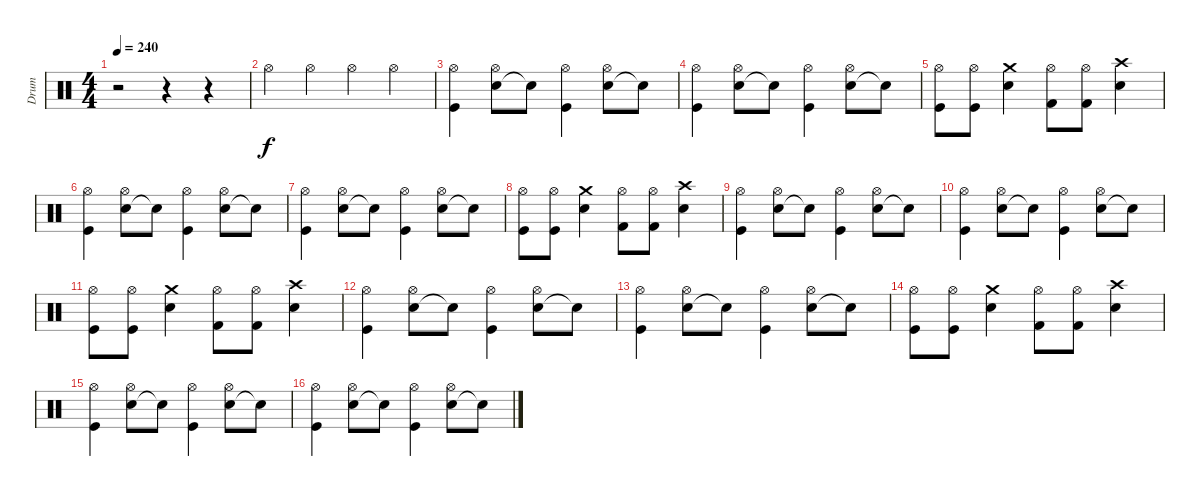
\track ("Drum" "Drum") {instrument percussion}
\staff {score}
\articulation defaults
\ts (4 4)
\tempo 240
\clef neutral
\ks c
r.2{dy f} r.4 r.4 |
"Hi-Hat (open)".4 "Hi-Hat (open)".4 "Hi-Hat (open)".4 "Hi-Hat (open)".4 |
("Hi-Hat (open)" "Kick (hit)").4 ("Snare (hit) 2" "Hi-Hat (open)").8 "Electric Snare (hit)"{t}.8 ("Hi-Hat (open)" "Kick (hit)").4 ("Snare (hit) 2" "Hi-Hat (open)").8 "Electric Snare (hit)"{t}.8 |
("Hi-Hat (open)" "Kick (hit)").4 ("Snare (hit) 2" "Hi-Hat (open)").8 "Electric Snare (hit)"{t}.8 ("Hi-Hat (open)" "Kick (hit)").4 ("Snare (hit) 2" "Hi-Hat (open)").8 "Electric Snare (hit)"{t}.8 |
("Hi-Hat (open)" "Kick (hit)").8 ("Hi-Hat (open)" "Kick (hit)").8 ("Crash medium (hit)" "Snare (hit) 2").4 ("Hi-Hat (open)" "Kick (hit) 2").8 ("Hi-Hat (open)" "Kick (hit) 2").8 ("Crash high (hit)" "Snare (hit) 2").4 |
("Hi-Hat (open)" "Kick (hit)").4 ("Snare (hit) 2" "Hi-Hat (open)").8 "Electric Snare (hit)"{t}.8 ("Hi-Hat (open)" "Kick (hit)").4 ("Snare (hit) 2" "Hi-Hat (open)").8 "Electric Snare (hit)"{t}.8 |
("Hi-Hat (open)" "Kick (hit)").4 ("Snare (hit) 2" "Hi-Hat (open)").8 "Electric Snare (hit)"{t}.8 ("Hi-Hat (open)" "Kick (hit)").4 ("Snare (hit) 2" "Hi-Hat (open)").8 "Electric Snare (hit)"{t}.8 |
("Hi-Hat (open)" "Kick (hit)").8 ("Hi-Hat (open)" "Kick (hit)").8 ("Crash medium (hit)" "Snare (hit) 2").4 ("Hi-Hat (open)" "Kick (hit) 2").8 ("Hi-Hat (open)" "Kick (hit) 2").8 ("Crash high (hit)" "Snare (hit) 2").4 |
("Hi-Hat (open)" "Kick (hit)").4 ("Snare (hit) 2" "Hi-Hat (open)").8 "Electric Snare (hit)"{t}.8 ("Hi-Hat (open)" "Kick (hit)").4 ("Snare (hit) 2" "Hi-Hat (open)").8 "Electric Snare (hit)"{t}.8 |
("Hi-Hat (open)" "Kick (hit)").4 ("Snare (hit) 2" "Hi-Hat (open)").8 "Electric Snare (hit)"{t}.8 ("Hi-Hat (open)" "Kick (hit)").4 ("Snare (hit) 2" "Hi-Hat (open)").8 "Electric Snare (hit)"{t}.8 |
("Hi-Hat (open)" "Kick (hit)").8 ("Hi-Hat (open)" "Kick (hit)").8 ("Crash medium (hit)" "Snare (hit) 2").4 ("Hi-Hat (open)" "Kick (hit) 2").8 ("Hi-Hat (open)" "Kick (hit) 2").8 ("Crash high (hit)" "Snare (hit) 2").4 |
("Hi-Hat (open)" "Kick (hit)").4 ("Snare (hit) 2" "Hi-Hat (open)").8 "Electric Snare (hit)"{t}.8 ("Hi-Hat (open)" "Kick (hit)").4 ("Snare (hit) 2" "Hi-Hat (open)").8 "Electric Snare (hit)"{t}.8 |
("Hi-Hat (open)" "Kick (hit)").4 ("Snare (hit) 2" "Hi-Hat (open)").8 "Electric Snare (hit)"{t}.8 ("Hi-Hat (open)" "Kick (hit)").4 ("Snare (hit) 2" "Hi-Hat (open)").8 "Electric Snare (hit)"{t}.8 |
("Hi-Hat (open)" "Kick (hit)").8 ("Hi-Hat (open)" "Kick (hit)").8 ("Crash medium (hit)" "Snare (hit) 2").4 ("Hi-Hat (open)" "Kick (hit) 2").8 ("Hi-Hat (open)" "Kick (hit) 2").8 ("Crash high (hit)" "Snare (hit) 2").4 |
("Hi-Hat (open)" "Kick (hit)").4 ("Snare (hit) 2" "Hi-Hat (open)").8 "Electric Snare (hit)"{t}.8 ("Hi-Hat (open)" "Kick (hit)").4 ("Snare (hit) 2" "Hi-Hat (open)").8 "Electric Snare (hit)"{t}.8 |
("Hi-Hat (open)" "Kick (hit)").4 ("Snare (hit) 2" "Hi-Hat (open)").8 "Electric Snare (hit)"{t}.8 ("Hi-Hat (open)" "Kick (hit)").4 ("Snare (hit) 2" "Hi-Hat (open)").8 "Electric Snare (hit)"{t}.8
